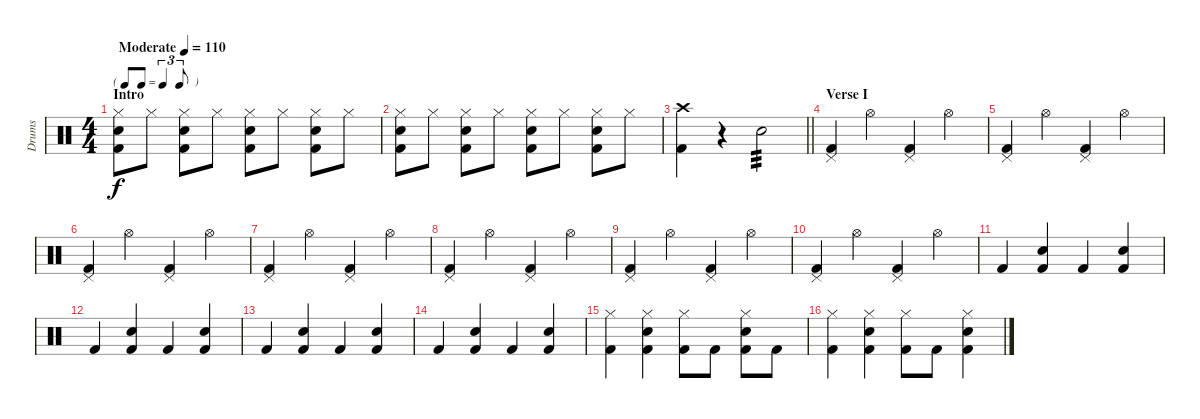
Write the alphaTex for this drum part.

\track ("Drums" "Drums") {instrument percussion}
\staff {score}
\articulation defaults
\ts (4 4)
\tf triplet8th
\section ("" "Intro")
\tempo (110 "Moderate")
\clef neutral
\ks c
("Hi-Hat (closed)" "Snare (hit) 2" "Kick (hit) 2").8{dy f} "Hi-Hat (closed)".8 ("Hi-Hat (closed)" "Snare (hit) 2" "Kick (hit) 2").8 "Hi-Hat (closed)".8 ("Hi-Hat (closed)" "Snare (hit) 2" "Kick (hit) 2").8 "Hi-Hat (closed)".8 ("Hi-Hat (closed)" "Snare (hit) 2" "Kick (hit) 2").8 "Hi-Hat (closed)".8 |
("Hi-Hat (closed)" "Snare (hit) 2" "Kick (hit) 2").8 "Hi-Hat (closed)".8 ("Hi-Hat (closed)" "Snare (hit) 2" "Kick (hit) 2").8 "Hi-Hat (closed)".8 ("Hi-Hat (closed)" "Snare (hit) 2" "Kick (hit) 2").8 "Hi-Hat (closed)".8 ("Hi-Hat (closed)" "Snare (hit) 2" "Kick (hit) 2").8 "Hi-Hat (closed)".8 |
\barLineRight lightlight
("Crash high (hit)" "Kick (hit) 2").4 r.4 "Snare (hit) 2".2{tp 3} |
\section ("" "Verse I")
("Pedal Hi-Hat (hit)" "Kick (hit) 2").4 "Hi-Hat (open)".4 ("Pedal Hi-Hat (hit)" "Kick (hit) 2").4 "Hi-Hat (open)".4 |
("Pedal Hi-Hat (hit)" "Kick (hit) 2").4 "Hi-Hat (open)".4 ("Pedal Hi-Hat (hit)" "Kick (hit) 2").4 "Hi-Hat (open)".4 |
("Pedal Hi-Hat (hit)" "Kick (hit) 2").4 "Hi-Hat (open)".4 ("Pedal Hi-Hat (hit)" "Kick (hit) 2").4 "Hi-Hat (open)".4 |
("Pedal Hi-Hat (hit)" "Kick (hit) 2").4 "Hi-Hat (open)".4 ("Pedal Hi-Hat (hit)" "Kick (hit) 2").4 "Hi-Hat (open)".4 |
("Pedal Hi-Hat (hit)" "Kick (hit) 2").4 "Hi-Hat (open)".4 ("Pedal Hi-Hat (hit)" "Kick (hit) 2").4 "Hi-Hat (open)".4 |
("Pedal Hi-Hat (hit)" "Kick (hit) 2").4 "Hi-Hat (open)".4 ("Pedal Hi-Hat (hit)" "Kick (hit) 2").4 "Hi-Hat (open)".4 |
("Pedal Hi-Hat (hit)" "Kick (hit) 2").4 "Hi-Hat (open)".4 ("Pedal Hi-Hat (hit)" "Kick (hit) 2").4 "Hi-Hat (open)".4 |
"Kick (hit) 2".4 ("Snare (hit) 2" "Kick (hit) 2").4 "Kick (hit) 2".4 ("Snare (hit) 2" "Kick (hit) 2").4 |
"Kick (hit) 2".4 ("Snare (hit) 2" "Kick (hit) 2").4 "Kick (hit) 2".4 ("Snare (hit) 2" "Kick (hit) 2").4 |
"Kick (hit) 2".4 ("Snare (hit) 2" "Kick (hit) 2").4 "Kick (hit) 2".4 ("Snare (hit) 2" "Kick (hit) 2").4 |
"Kick (hit) 2".4 ("Snare (hit) 2" "Kick (hit) 2").4 "Kick (hit) 2".4 ("Snare (hit) 2" "Kick (hit) 2").4 |
("Hi-Hat (closed)" "Kick (hit) 2").4 ("Hi-Hat (closed)" "Snare (hit) 2" "Kick (hit) 2").4 ("Hi-Hat (closed)" "Kick (hit) 2").8 "Kick (hit) 2".8 ("Hi-Hat (closed)" "Snare (hit) 2" "Kick (hit) 2").8 "Kick (hit) 2".8 |
("Hi-Hat (closed)" "Kick (hit) 2").4 ("Hi-Hat (closed)" "Snare (hit) 2" "Kick (hit) 2").4 ("Hi-Hat (closed)" "Kick (hit) 2").8 "Kick (hit) 2".8 ("Hi-Hat (closed)" "Snare (hit) 2" "Kick (hit) 2").4
